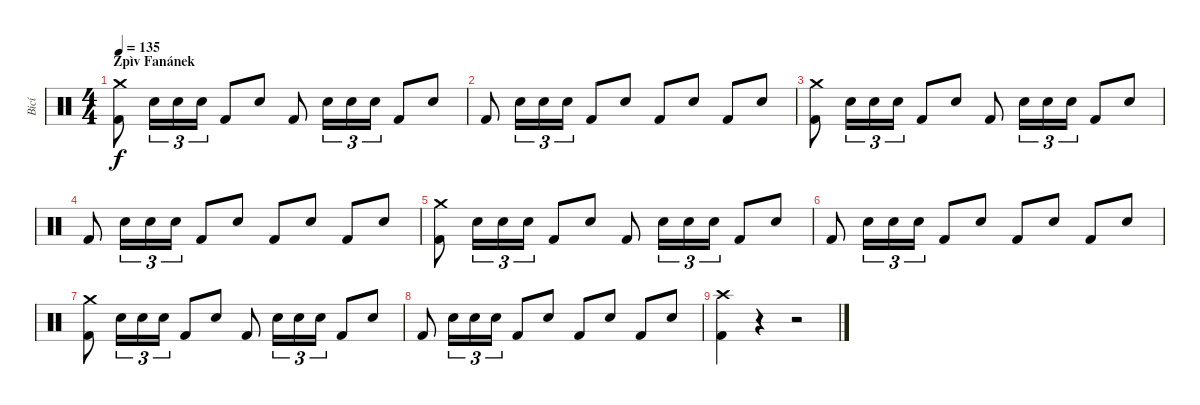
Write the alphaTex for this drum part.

\track ("Bicí" "Bicí") {instrument percussion}
\staff {score}
\articulation defaults
\ts (4 4)
\section ("" "Zpìv Fanánek")
\tempo 135
\clef neutral
\ks c
("Crash medium (hit)" "Kick (hit) 2").8{dy f} "Snare (hit) 2".16{tu (3 2)} "Snare (hit) 2".16{tu (3 2)} "Snare (hit) 2".16{tu (3 2)} "Kick (hit) 2".8 "Snare (hit) 2".8 "Kick (hit) 2".8 "Snare (hit) 2".16{tu (3 2)} "Snare (hit) 2".16{tu (3 2)} "Snare (hit) 2".16{tu (3 2)} "Kick (hit) 2".8 "Snare (hit) 2".8 |
"Kick (hit) 2".8 "Snare (hit) 2".16{tu (3 2)} "Snare (hit) 2".16{tu (3 2)} "Snare (hit) 2".16{tu (3 2)} "Kick (hit) 2".8 "Snare (hit) 2".8 "Kick (hit) 2".8 "Snare (hit) 2".8 "Kick (hit) 2".8 "Snare (hit) 2".8 |
("Crash medium (hit)" "Kick (hit) 2").8 "Snare (hit) 2".16{tu (3 2)} "Snare (hit) 2".16{tu (3 2)} "Snare (hit) 2".16{tu (3 2)} "Kick (hit) 2".8 "Snare (hit) 2".8 "Kick (hit) 2".8 "Snare (hit) 2".16{tu (3 2)} "Snare (hit) 2".16{tu (3 2)} "Snare (hit) 2".16{tu (3 2)} "Kick (hit) 2".8 "Snare (hit) 2".8 |
"Kick (hit) 2".8 "Snare (hit) 2".16{tu (3 2)} "Snare (hit) 2".16{tu (3 2)} "Snare (hit) 2".16{tu (3 2)} "Kick (hit) 2".8 "Snare (hit) 2".8 "Kick (hit) 2".8 "Snare (hit) 2".8 "Kick (hit) 2".8 "Snare (hit) 2".8 |
("Crash medium (hit)" "Kick (hit) 2").8 "Snare (hit) 2".16{tu (3 2)} "Snare (hit) 2".16{tu (3 2)} "Snare (hit) 2".16{tu (3 2)} "Kick (hit) 2".8 "Snare (hit) 2".8 "Kick (hit) 2".8 "Snare (hit) 2".16{tu (3 2)} "Snare (hit) 2".16{tu (3 2)} "Snare (hit) 2".16{tu (3 2)} "Kick (hit) 2".8 "Snare (hit) 2".8 |
"Kick (hit) 2".8 "Snare (hit) 2".16{tu (3 2)} "Snare (hit) 2".16{tu (3 2)} "Snare (hit) 2".16{tu (3 2)} "Kick (hit) 2".8 "Snare (hit) 2".8 "Kick (hit) 2".8 "Snare (hit) 2".8 "Kick (hit) 2".8 "Snare (hit) 2".8 |
("Crash medium (hit)" "Kick (hit) 2").8 "Snare (hit) 2".16{tu (3 2)} "Snare (hit) 2".16{tu (3 2)} "Snare (hit) 2".16{tu (3 2)} "Kick (hit) 2".8 "Snare (hit) 2".8 "Kick (hit) 2".8 "Snare (hit) 2".16{tu (3 2)} "Snare (hit) 2".16{tu (3 2)} "Snare (hit) 2".16{tu (3 2)} "Kick (hit) 2".8 "Snare (hit) 2".8 |
"Kick (hit) 2".8 "Snare (hit) 2".16{tu (3 2)} "Snare (hit) 2".16{tu (3 2)} "Snare (hit) 2".16{tu (3 2)} "Kick (hit) 2".8 "Snare (hit) 2".8 "Kick (hit) 2".8 "Snare (hit) 2".8 "Kick (hit) 2".8 "Snare (hit) 2".8 |
("Crash high (hit)" "Kick (hit) 2").4 r.4 r.2
